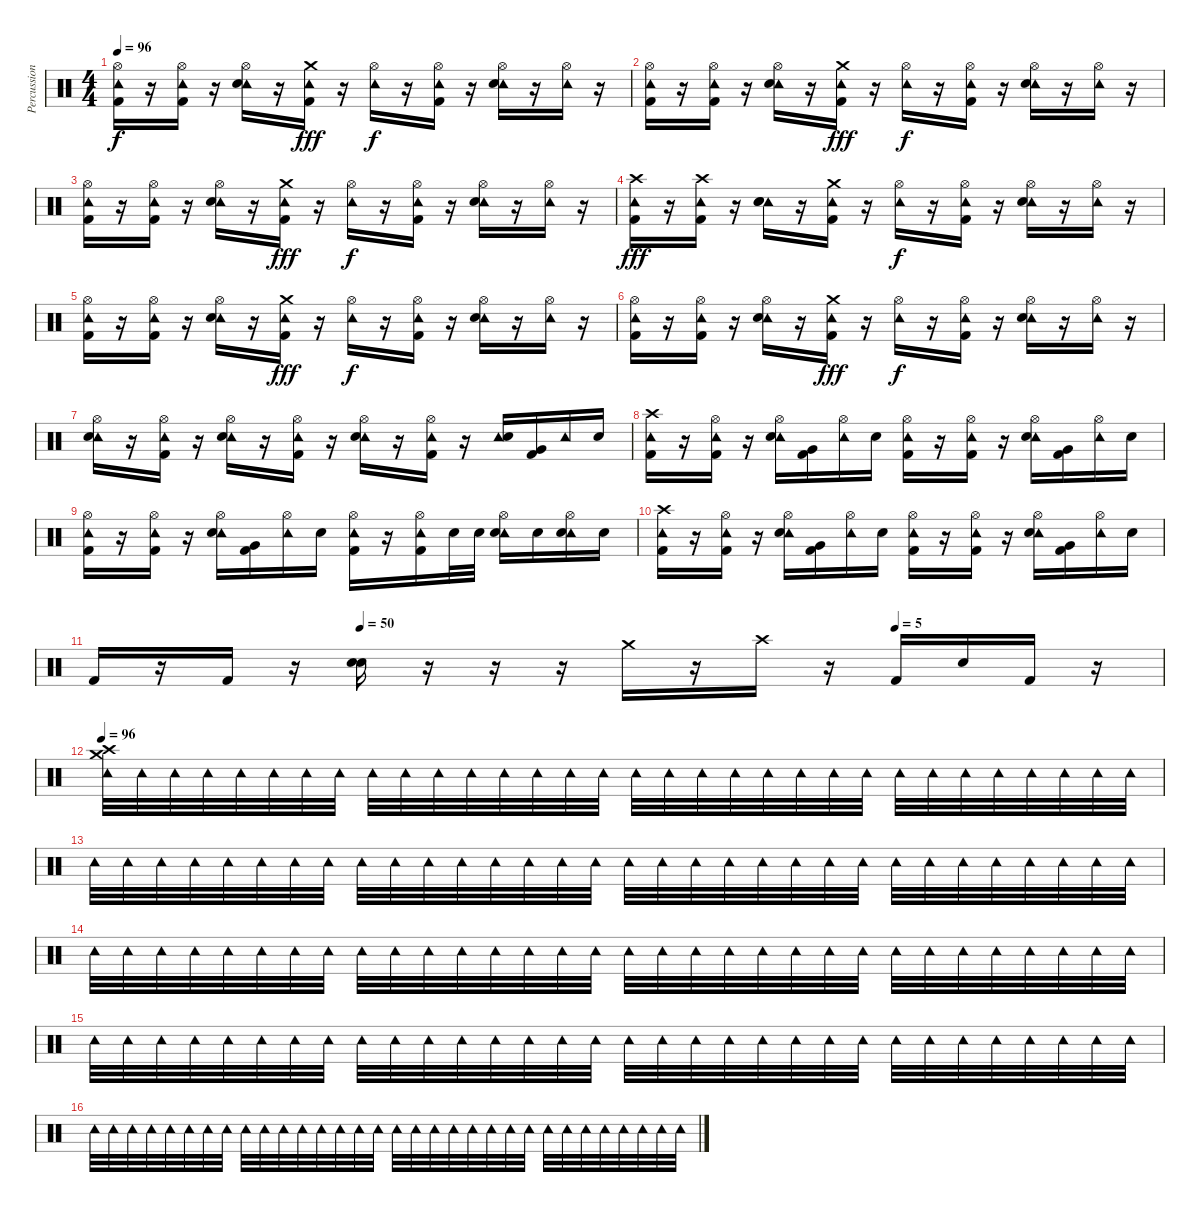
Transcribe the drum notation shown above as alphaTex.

\track ("Percussions" "Percussion") {instrument percussion}
\staff {score}
\articulation defaults
\ts (4 4)
\tempo 96
\clef neutral
\ks c
("Hi-Hat (open)" "Tambourine (hit)" "Kick (hit) 2").16{dy f} r.16 ("Hi-Hat (open)" "Tambourine (hit)" "Kick (hit) 2").16 r.16 ("Hi-Hat (open)" "Tambourine (hit)" "Electric Snare (hit)").16 r.16 ("Crash medium (hit)" "Tambourine (hit)" "Kick (hit) 2").16{dy fff} r.16 ("Hi-Hat (open)" "Tambourine (hit)").16{dy f} r.16 ("Hi-Hat (open)" "Tambourine (hit)" "Kick (hit) 2").16 r.16 ("Hi-Hat (open)" "Tambourine (hit)" "Electric Snare (hit)").16 r.16 ("Hi-Hat (open)" "Tambourine (hit)").16 r.16 |
("Hi-Hat (open)" "Tambourine (hit)" "Kick (hit) 2").16 r.16 ("Hi-Hat (open)" "Tambourine (hit)" "Kick (hit) 2").16 r.16 ("Hi-Hat (open)" "Tambourine (hit)" "Electric Snare (hit)").16 r.16 ("Crash medium (hit)" "Tambourine (hit)" "Kick (hit) 2").16{dy fff} r.16 ("Hi-Hat (open)" "Tambourine (hit)").16{dy f} r.16 ("Hi-Hat (open)" "Tambourine (hit)" "Kick (hit) 2").16 r.16 ("Hi-Hat (open)" "Tambourine (hit)" "Electric Snare (hit)").16 r.16 ("Hi-Hat (open)" "Tambourine (hit)").16 r.16 |
("Hi-Hat (open)" "Tambourine (hit)" "Kick (hit) 2").16 r.16 ("Hi-Hat (open)" "Tambourine (hit)" "Kick (hit) 2").16 r.16 ("Hi-Hat (open)" "Tambourine (hit)" "Electric Snare (hit)").16 r.16 ("Crash medium (hit)" "Tambourine (hit)" "Kick (hit) 2").16{dy fff} r.16 ("Hi-Hat (open)" "Tambourine (hit)").16{dy f} r.16 ("Hi-Hat (open)" "Tambourine (hit)" "Kick (hit) 2").16 r.16 ("Hi-Hat (open)" "Tambourine (hit)" "Electric Snare (hit)").16 r.16 ("Hi-Hat (open)" "Tambourine (hit)").16 r.16 |
("Crash high (hit)" "Tambourine (hit)" "Kick (hit) 2").16{dy fff} r.16 ("Crash high (hit)" "Tambourine (hit)" "Kick (hit) 2").16 r.16 ("Tambourine (hit)" "Snare (hit) 2" "Electric Snare (hit)").16 r.16 ("Crash medium (hit)" "Tambourine (hit)" "Kick (hit) 2").16 r.16 ("Hi-Hat (open)" "Tambourine (hit)").16{dy f} r.16 ("Hi-Hat (open)" "Tambourine (hit)" "Kick (hit) 2").16 r.16 ("Hi-Hat (open)" "Tambourine (hit)" "Electric Snare (hit)").16 r.16 ("Hi-Hat (open)" "Tambourine (hit)").16 r.16 |
("Hi-Hat (open)" "Tambourine (hit)" "Kick (hit) 2").16 r.16 ("Hi-Hat (open)" "Tambourine (hit)" "Kick (hit) 2").16 r.16 ("Hi-Hat (open)" "Tambourine (hit)" "Electric Snare (hit)").16 r.16 ("Crash medium (hit)" "Tambourine (hit)" "Kick (hit) 2").16{dy fff} r.16 ("Hi-Hat (open)" "Tambourine (hit)").16{dy f} r.16 ("Hi-Hat (open)" "Tambourine (hit)" "Kick (hit) 2").16 r.16 ("Hi-Hat (open)" "Tambourine (hit)" "Electric Snare (hit)").16 r.16 ("Hi-Hat (open)" "Tambourine (hit)").16 r.16 |
("Hi-Hat (open)" "Tambourine (hit)" "Kick (hit) 2").16 r.16 ("Hi-Hat (open)" "Tambourine (hit)" "Kick (hit) 2").16 r.16 ("Hi-Hat (open)" "Tambourine (hit)" "Electric Snare (hit)").16 r.16 ("Crash medium (hit)" "Tambourine (hit)" "Kick (hit) 2").16{dy fff} r.16 ("Hi-Hat (open)" "Tambourine (hit)").16{dy f} r.16 ("Hi-Hat (open)" "Tambourine (hit)" "Kick (hit) 2").16 r.16 ("Hi-Hat (open)" "Tambourine (hit)" "Electric Snare (hit)").16 r.16 ("Hi-Hat (open)" "Tambourine (hit)").16 r.16 |
("Hi-Hat (open)" "Tambourine (hit)" "Electric Snare (hit)").16 r.16 ("Hi-Hat (open)" "Tambourine (hit)" "Kick (hit) 2").16 r.16 ("Hi-Hat (open)" "Tambourine (hit)" "Electric Snare (hit)").16 r.16 ("Hi-Hat (open)" "Tambourine (hit)" "Kick (hit) 2").16 r.16 ("Hi-Hat (open)" "Tambourine (hit)" "Electric Snare (hit)").16 r.16 ("Hi-Hat (open)" "Tambourine (hit)" "Kick (hit) 2").16 r.16 ("Tambourine (hit)" "Electric Snare (hit)").16 ("Very Low Tom (hit)" "Kick (hit) 2").16 "Tambourine (hit)".16 "Electric Snare (hit)".16 |
("Crash high (hit)" "Tambourine (hit)" "Kick (hit) 2").16 r.16 ("Hi-Hat (open)" "Tambourine (hit)" "Kick (hit) 2").16 r.16 ("Hi-Hat (open)" "Tambourine (hit)" "Electric Snare (hit)").16 ("Very Low Tom (hit)" "Kick (hit) 2").16 ("Hi-Hat (open)" "Tambourine (hit)").16 "Electric Snare (hit)".16 ("Hi-Hat (open)" "Tambourine (hit)" "Kick (hit) 2").16 r.16 ("Hi-Hat (open)" "Tambourine (hit)" "Kick (hit) 2").16 r.16 ("Hi-Hat (open)" "Tambourine (hit)" "Electric Snare (hit)").16 ("Very Low Tom (hit)" "Kick (hit) 2").16 ("Hi-Hat (open)" "Tambourine (hit)").16 "Electric Snare (hit)".16 |
("Hi-Hat (open)" "Tambourine (hit)" "Kick (hit) 2").16 r.16 ("Hi-Hat (open)" "Tambourine (hit)" "Kick (hit) 2").16 r.16 ("Hi-Hat (open)" "Tambourine (hit)" "Electric Snare (hit)").16 ("Very Low Tom (hit)" "Kick (hit) 2").16 ("Hi-Hat (open)" "Tambourine (hit)").16 "Electric Snare (hit)".16 ("Hi-Hat (open)" "Tambourine (hit)" "Kick (hit) 2").16 r.16 ("Hi-Hat (open)" "Tambourine (hit)" "Kick (hit) 2").16 "Electric Snare (hit)".32 "Electric Snare (hit)".32 ("Hi-Hat (open)" "Tambourine (hit)" "Electric Snare (hit)").16 "Electric Snare (hit)".16 ("Hi-Hat (open)" "Tambourine (hit)" "Electric Snare (hit)").16 "Electric Snare (hit)".16 |
("Crash high (hit)" "Tambourine (hit)" "Kick (hit) 2").16 r.16 ("Hi-Hat (open)" "Tambourine (hit)" "Kick (hit) 2").16 r.16 ("Hi-Hat (open)" "Tambourine (hit)" "Electric Snare (hit)").16 ("Very Low Tom (hit)" "Kick (hit) 2").16 ("Hi-Hat (open)" "Tambourine (hit)").16 "Electric Snare (hit)".16 ("Hi-Hat (open)" "Tambourine (hit)" "Kick (hit) 2").16 r.16 ("Hi-Hat (open)" "Tambourine (hit)" "Kick (hit) 2").16 r.16 ("Hi-Hat (open)" "Tambourine (hit)" "Electric Snare (hit)").16 ("Very Low Tom (hit)" "Kick (hit) 2").16 ("Hi-Hat (open)" "Tambourine (hit)").16 "Electric Snare (hit)".16 |
\tempo (50 0.25)
\tempo (5 0.75)
"Kick (hit) 2".16 r.16 "Kick (hit) 2".16 r.16 ("Snare (hit) 2" "Electric Snare (hit)").16 r.16 r.16 r.16 "Crash medium (hit)".16 r.16 "Crash high (hit)".16 r.16 "Kick (hit) 2".16 "Electric Snare (hit)".16 "Kick (hit) 2".16 r.16 |
\tempo 96
("Tambourine (hit)" "Crash medium (hit)" "Crash high (hit)").32 "Tambourine (hit)".32 "Tambourine (hit)".32 "Tambourine (hit)".32 "Tambourine (hit)".32 "Tambourine (hit)".32 "Tambourine (hit)".32 "Tambourine (hit)".32 "Tambourine (hit)".32 "Tambourine (hit)".32 "Tambourine (hit)".32 "Tambourine (hit)".32 "Tambourine (hit)".32 "Tambourine (hit)".32 "Tambourine (hit)".32 "Tambourine (hit)".32 "Tambourine (hit)".32 "Tambourine (hit)".32 "Tambourine (hit)".32 "Tambourine (hit)".32 "Tambourine (hit)".32 "Tambourine (hit)".32 "Tambourine (hit)".32 "Tambourine (hit)".32 "Tambourine (hit)".32 "Tambourine (hit)".32 "Tambourine (hit)".32 "Tambourine (hit)".32 "Tambourine (hit)".32 "Tambourine (hit)".32 "Tambourine (hit)".32 "Tambourine (hit)".32 |
"Tambourine (hit)".32 "Tambourine (hit)".32 "Tambourine (hit)".32 "Tambourine (hit)".32 "Tambourine (hit)".32 "Tambourine (hit)".32 "Tambourine (hit)".32 "Tambourine (hit)".32 "Tambourine (hit)".32 "Tambourine (hit)".32 "Tambourine (hit)".32 "Tambourine (hit)".32 "Tambourine (hit)".32 "Tambourine (hit)".32 "Tambourine (hit)".32 "Tambourine (hit)".32 "Tambourine (hit)".32 "Tambourine (hit)".32 "Tambourine (hit)".32 "Tambourine (hit)".32 "Tambourine (hit)".32 "Tambourine (hit)".32 "Tambourine (hit)".32 "Tambourine (hit)".32 "Tambourine (hit)".32 "Tambourine (hit)".32 "Tambourine (hit)".32 "Tambourine (hit)".32 "Tambourine (hit)".32 "Tambourine (hit)".32 "Tambourine (hit)".32 "Tambourine (hit)".32 |
"Tambourine (hit)".32{volume 7} "Tambourine (hit)".32 "Tambourine (hit)".32 "Tambourine (hit)".32 "Tambourine (hit)".32 "Tambourine (hit)".32 "Tambourine (hit)".32 "Tambourine (hit)".32 "Tambourine (hit)".32 "Tambourine (hit)".32 "Tambourine (hit)".32 "Tambourine (hit)".32 "Tambourine (hit)".32 "Tambourine (hit)".32 "Tambourine (hit)".32 "Tambourine (hit)".32 "Tambourine (hit)".32 "Tambourine (hit)".32 "Tambourine (hit)".32 "Tambourine (hit)".32 "Tambourine (hit)".32 "Tambourine (hit)".32 "Tambourine (hit)".32 "Tambourine (hit)".32 "Tambourine (hit)".32 "Tambourine (hit)".32 "Tambourine (hit)".32 "Tambourine (hit)".32 "Tambourine (hit)".32 "Tambourine (hit)".32 "Tambourine (hit)".32 "Tambourine (hit)".32 |
"Tambourine (hit)".32 "Tambourine (hit)".32 "Tambourine (hit)".32 "Tambourine (hit)".32 "Tambourine (hit)".32 "Tambourine (hit)".32 "Tambourine (hit)".32 "Tambourine (hit)".32 "Tambourine (hit)".32 "Tambourine (hit)".32 "Tambourine (hit)".32 "Tambourine (hit)".32 "Tambourine (hit)".32 "Tambourine (hit)".32 "Tambourine (hit)".32 "Tambourine (hit)".32 "Tambourine (hit)".32 "Tambourine (hit)".32 "Tambourine (hit)".32 "Tambourine (hit)".32 "Tambourine (hit)".32 "Tambourine (hit)".32 "Tambourine (hit)".32 "Tambourine (hit)".32 "Tambourine (hit)".32 "Tambourine (hit)".32 "Tambourine (hit)".32 "Tambourine (hit)".32 "Tambourine (hit)".32 "Tambourine (hit)".32 "Tambourine (hit)".32 "Tambourine (hit)".32 |
"Tambourine (hit)".32{volume 0} "Tambourine (hit)".32 "Tambourine (hit)".32 "Tambourine (hit)".32 "Tambourine (hit)".32 "Tambourine (hit)".32 "Tambourine (hit)".32 "Tambourine (hit)".32 "Tambourine (hit)".32 "Tambourine (hit)".32 "Tambourine (hit)".32 "Tambourine (hit)".32 "Tambourine (hit)".32 "Tambourine (hit)".32 "Tambourine (hit)".32 "Tambourine (hit)".32 "Tambourine (hit)".32 "Tambourine (hit)".32 "Tambourine (hit)".32 "Tambourine (hit)".32 "Tambourine (hit)".32 "Tambourine (hit)".32 "Tambourine (hit)".32 "Tambourine (hit)".32 "Tambourine (hit)".32 "Tambourine (hit)".32 "Tambourine (hit)".32 "Tambourine (hit)".32 "Tambourine (hit)".32 "Tambourine (hit)".32 "Tambourine (hit)".32 "Tambourine (hit)".32
